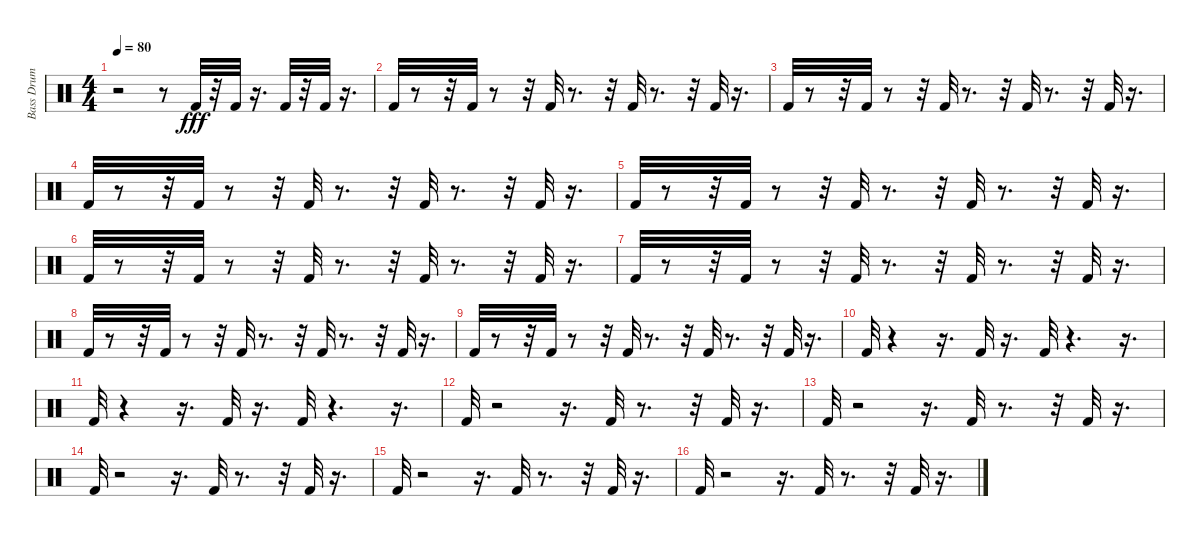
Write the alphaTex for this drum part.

\track ("Bass Drum" "Bass Drum") {instrument percussion}
\staff {score}
\articulation defaults
\ts (4 4)
\tempo 80
\clef neutral
\ks c
r.2{dy fff} r.8 "Kick (hit) 2".32 r.32 "Kick (hit) 2".32 r.16{d} "Kick (hit) 2".32 r.32 "Kick (hit) 2".32 r.16{d} |
"Kick (hit) 2".32 r.8 r.32 "Kick (hit) 2".32 r.8 r.32 "Kick (hit) 2".32 r.8{d} r.32 "Kick (hit) 2".32 r.8{d} r.32 "Kick (hit) 2".32 r.16{d} |
"Kick (hit) 2".32 r.8 r.32 "Kick (hit) 2".32 r.8 r.32 "Kick (hit) 2".32 r.8{d} r.32 "Kick (hit) 2".32 r.8{d} r.32 "Kick (hit) 2".32 r.16{d} |
"Kick (hit) 2".32 r.8 r.32 "Kick (hit) 2".32 r.8 r.32 "Kick (hit) 2".32 r.8{d} r.32 "Kick (hit) 2".32 r.8{d} r.32 "Kick (hit) 2".32 r.16{d} |
"Kick (hit) 2".32 r.8 r.32 "Kick (hit) 2".32 r.8 r.32 "Kick (hit) 2".32 r.8{d} r.32 "Kick (hit) 2".32 r.8{d} r.32 "Kick (hit) 2".32 r.16{d} |
"Kick (hit) 2".32 r.8 r.32 "Kick (hit) 2".32 r.8 r.32 "Kick (hit) 2".32 r.8{d} r.32 "Kick (hit) 2".32 r.8{d} r.32 "Kick (hit) 2".32 r.16{d} |
"Kick (hit) 2".32 r.8 r.32 "Kick (hit) 2".32 r.8 r.32 "Kick (hit) 2".32 r.8{d} r.32 "Kick (hit) 2".32 r.8{d} r.32 "Kick (hit) 2".32 r.16{d} |
"Kick (hit) 2".32 r.8 r.32 "Kick (hit) 2".32 r.8 r.32 "Kick (hit) 2".32 r.8{d} r.32 "Kick (hit) 2".32 r.8{d} r.32 "Kick (hit) 2".32 r.16{d} |
"Kick (hit) 2".32 r.8 r.32 "Kick (hit) 2".32 r.8 r.32 "Kick (hit) 2".32 r.8{d} r.32 "Kick (hit) 2".32 r.8{d} r.32 "Kick (hit) 2".32 r.16{d} |
"Kick (hit) 2".32 r.4 r.16{d} "Kick (hit) 2".32 r.16{d} "Kick (hit) 2".32 r.4{d} r.16{d} |
"Kick (hit) 2".32 r.4 r.16{d} "Kick (hit) 2".32 r.16{d} "Kick (hit) 2".32 r.4{d} r.16{d} |
"Kick (hit) 2".32 r.2 r.16{d} "Kick (hit) 2".32 r.8{d} r.32 "Kick (hit) 2".32 r.16{d} |
"Kick (hit) 2".32 r.2 r.16{d} "Kick (hit) 2".32 r.8{d} r.32 "Kick (hit) 2".32 r.16{d} |
"Kick (hit) 2".32 r.2 r.16{d} "Kick (hit) 2".32 r.8{d} r.32 "Kick (hit) 2".32 r.16{d} |
"Kick (hit) 2".32 r.2 r.16{d} "Kick (hit) 2".32 r.8{d} r.32 "Kick (hit) 2".32 r.16{d} |
"Kick (hit) 2".32 r.2 r.16{d} "Kick (hit) 2".32 r.8{d} r.32 "Kick (hit) 2".32 r.16{d}
